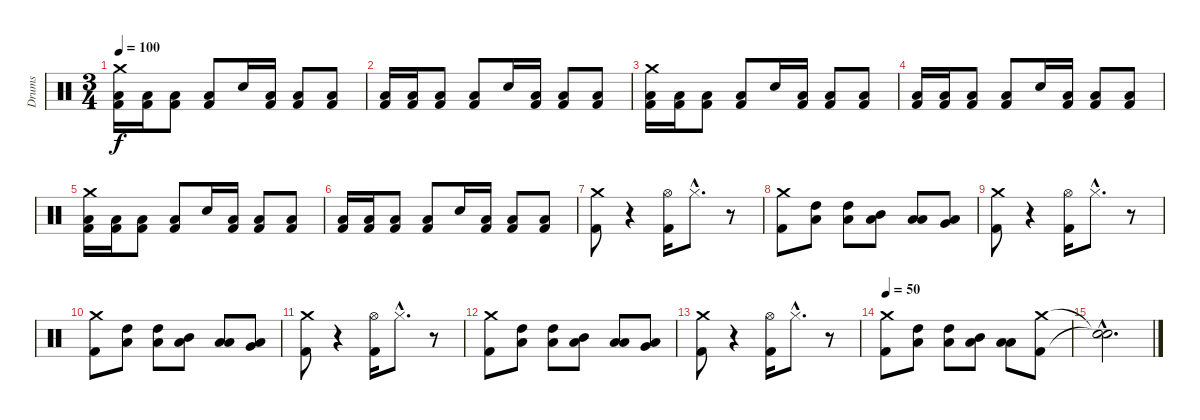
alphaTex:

\track ("Drums" "Drums") {instrument percussion}
\staff {score}
\articulation defaults
\ts (3 4)
\tempo 100
\clef neutral
\ks c
("Crash medium (hit)" "Kick (hit) 2" "Low Tom (hit)").16{dy f} ("Kick (hit) 2" "Low Tom (hit)").16 ("Kick (hit) 2" "Low Tom (hit)").8 ("Kick (hit) 2" "Low Tom (hit)").8 "Electric Snare (hit)".16 ("Kick (hit) 2" "Low Tom (hit)").16 ("Kick (hit) 2" "Low Tom (hit)").8 ("Kick (hit) 2" "Low Tom (hit)").8 |
("Kick (hit) 2" "Low Tom (hit)").16 ("Kick (hit) 2" "Low Tom (hit)").16 ("Kick (hit) 2" "Low Tom (hit)").8 ("Kick (hit) 2" "Low Tom (hit)").8 "Electric Snare (hit)".16 ("Kick (hit) 2" "Low Tom (hit)").16 ("Kick (hit) 2" "Low Tom (hit)").8 ("Kick (hit) 2" "Low Tom (hit)").8 |
("Crash medium (hit)" "Kick (hit) 2" "Low Tom (hit)").16 ("Kick (hit) 2" "Low Tom (hit)").16 ("Kick (hit) 2" "Low Tom (hit)").8 ("Kick (hit) 2" "Low Tom (hit)").8 "Electric Snare (hit)".16 ("Kick (hit) 2" "Low Tom (hit)").16 ("Kick (hit) 2" "Low Tom (hit)").8 ("Kick (hit) 2" "Low Tom (hit)").8 |
("Kick (hit) 2" "Low Tom (hit)").16 ("Kick (hit) 2" "Low Tom (hit)").16 ("Kick (hit) 2" "Low Tom (hit)").8 ("Kick (hit) 2" "Low Tom (hit)").8 "Electric Snare (hit)".16 ("Kick (hit) 2" "Low Tom (hit)").16 ("Kick (hit) 2" "Low Tom (hit)").8 ("Kick (hit) 2" "Low Tom (hit)").8 |
("Crash medium (hit)" "Kick (hit) 2" "Low Tom (hit)").16 ("Kick (hit) 2" "Low Tom (hit)").16 ("Kick (hit) 2" "Low Tom (hit)").8 ("Kick (hit) 2" "Low Tom (hit)").8 "Electric Snare (hit)".16 ("Kick (hit) 2" "Low Tom (hit)").16 ("Kick (hit) 2" "Low Tom (hit)").8 ("Kick (hit) 2" "Low Tom (hit)").8 |
("Kick (hit) 2" "Low Tom (hit)").16 ("Kick (hit) 2" "Low Tom (hit)").16 ("Kick (hit) 2" "Low Tom (hit)").8 ("Kick (hit) 2" "Low Tom (hit)").8 "Electric Snare (hit)".16 ("Kick (hit) 2" "Low Tom (hit)").16 ("Kick (hit) 2" "Low Tom (hit)").8 ("Kick (hit) 2" "Low Tom (hit)").8 |
("Crash medium (hit)" "Kick (hit) 2").8 r.4 ("Hi-Hat (open)" "Kick (hit) 2").16 "Hi-Hat (closed)"{hac}.8{d} r.8 |
("Crash medium (hit)" "Kick (hit) 2").8 ("High Tom (hit)" "Low Tom (hit)").8 ("High Tom (hit)" "Low Tom (hit)").8 ("Mid Tom (hit)" "Low Tom (hit)").8 ("Low Tom (hit)" "Low Tom (hit)").8 ("Very Low Tom (hit)" "Low Tom (hit)").8 |
("Crash medium (hit)" "Kick (hit) 2").8 r.4 ("Hi-Hat (open)" "Kick (hit) 2").16 "Hi-Hat (closed)"{hac}.8{d} r.8 |
("Crash medium (hit)" "Kick (hit) 2").8 ("High Tom (hit)" "Low Tom (hit)").8 ("High Tom (hit)" "Low Tom (hit)").8 ("Mid Tom (hit)" "Low Tom (hit)").8 ("Low Tom (hit)" "Low Tom (hit)").8 ("Very Low Tom (hit)" "Low Tom (hit)").8 |
("Crash medium (hit)" "Kick (hit) 2").8 r.4 ("Hi-Hat (open)" "Kick (hit) 2").16 "Hi-Hat (closed)"{hac}.8{d} r.8 |
("Crash medium (hit)" "Kick (hit) 2").8 ("High Tom (hit)" "Low Tom (hit)").8 ("High Tom (hit)" "Low Tom (hit)").8 ("Mid Tom (hit)" "Low Tom (hit)").8 ("Low Tom (hit)" "Low Tom (hit)").8 ("Very Low Tom (hit)" "Low Tom (hit)").8 |
("Crash medium (hit)" "Kick (hit) 2").8 r.4 ("Hi-Hat (open)" "Kick (hit) 2").16 "Hi-Hat (closed)"{hac}.8{d} r.8 |
\tempo 50
("Crash medium (hit)" "Kick (hit) 2").8 ("High Tom (hit)" "Low Tom (hit)").8 ("High Tom (hit)" "Low Tom (hit)").8 ("Mid Tom (hit)" "Low Tom (hit)").8 ("Low Tom (hit)" "Low Tom (hit)").8 ("Crash medium (hit)" "Kick (hit) 2").8 |
("Snare (hit)"{hac t} "Snare (hit)"{hac t}).2{d}
